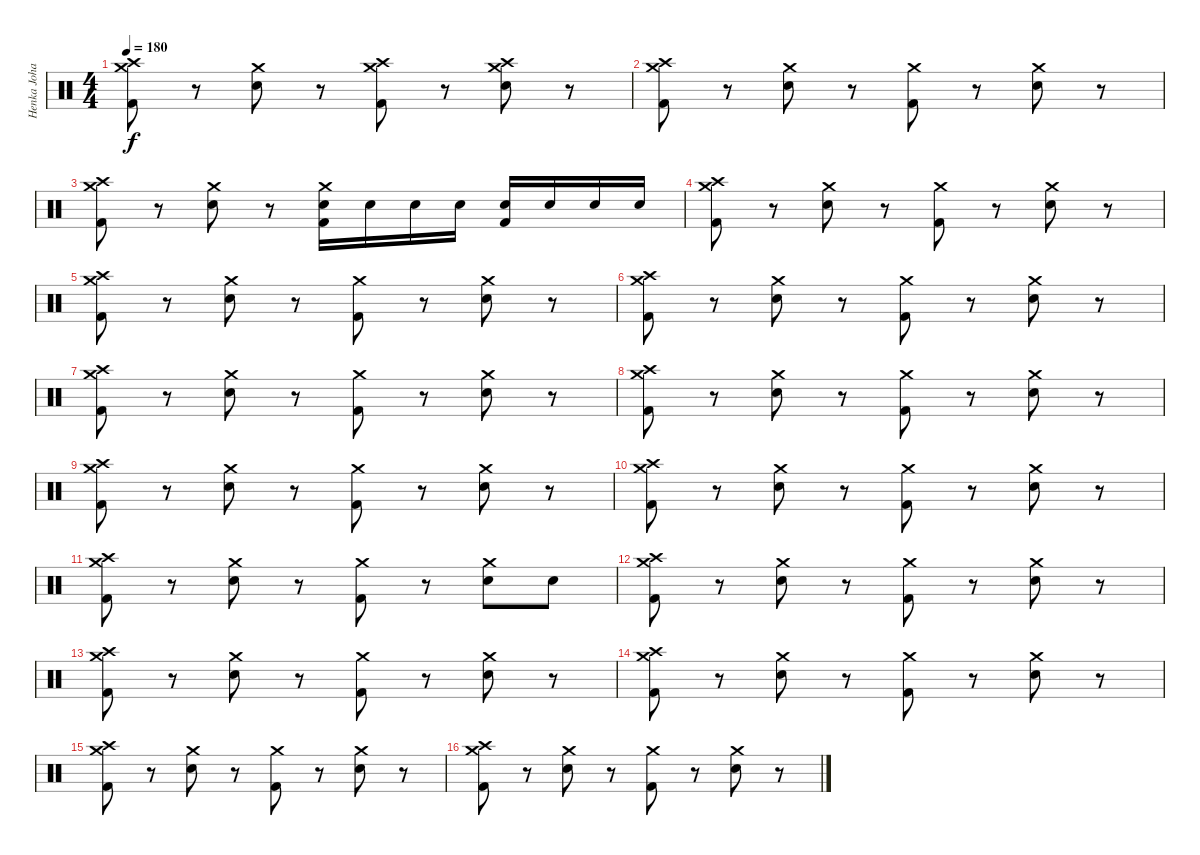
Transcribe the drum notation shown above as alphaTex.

\track ("Henka Johansson" "Henka Joha") {instrument percussion}
\staff {score}
\articulation defaults
\ts (4 4)
\tempo 180
\clef neutral
\ks c
("Crash medium (hit)" "Crash high (hit)" "Kick (hit) 2").8{dy f} r.8 ("Crash medium (hit)" "Snare (hit) 2").8 r.8 ("Crash medium (hit)" "Crash high (hit)" "Kick (hit) 2").8 r.8 ("Crash medium (hit)" "Crash high (hit)" "Snare (hit) 2").8 r.8 |
("Crash medium (hit)" "Crash high (hit)" "Kick (hit) 2").8 r.8 ("Crash medium (hit)" "Snare (hit) 2").8 r.8 ("Crash medium (hit)" "Kick (hit) 2").8 r.8 ("Crash medium (hit)" "Snare (hit) 2").8 r.8 |
("Crash medium (hit)" "Crash high (hit)" "Kick (hit) 2").8 r.8 ("Crash medium (hit)" "Snare (hit) 2").8 r.8 ("Crash medium (hit)" "Snare (hit) 2" "Kick (hit) 2").16 "Snare (hit) 2".16 "Snare (hit) 2".16 "Snare (hit) 2".16 ("Snare (hit) 2" "Kick (hit) 2").16 "Snare (hit) 2".16 "Snare (hit) 2".16 "Snare (hit) 2".16 |
("Crash medium (hit)" "Crash high (hit)" "Kick (hit) 2").8 r.8 ("Crash medium (hit)" "Snare (hit) 2").8 r.8 ("Crash medium (hit)" "Kick (hit) 2").8 r.8 ("Crash medium (hit)" "Snare (hit) 2").8 r.8 |
("Crash medium (hit)" "Crash high (hit)" "Kick (hit) 2").8 r.8 ("Crash medium (hit)" "Snare (hit) 2").8 r.8 ("Crash medium (hit)" "Kick (hit) 2").8 r.8 ("Crash medium (hit)" "Snare (hit) 2").8 r.8 |
("Crash medium (hit)" "Crash high (hit)" "Kick (hit) 2").8 r.8 ("Crash medium (hit)" "Snare (hit) 2").8 r.8 ("Crash medium (hit)" "Kick (hit) 2").8 r.8 ("Crash medium (hit)" "Snare (hit) 2").8 r.8 |
("Crash medium (hit)" "Crash high (hit)" "Kick (hit) 2").8 r.8 ("Crash medium (hit)" "Snare (hit) 2").8 r.8 ("Crash medium (hit)" "Kick (hit) 2").8 r.8 ("Crash medium (hit)" "Snare (hit) 2").8 r.8 |
("Crash medium (hit)" "Crash high (hit)" "Kick (hit) 2").8 r.8 ("Crash medium (hit)" "Snare (hit) 2").8 r.8 ("Crash medium (hit)" "Kick (hit) 2").8 r.8 ("Crash medium (hit)" "Snare (hit) 2").8 r.8 |
("Crash medium (hit)" "Crash high (hit)" "Kick (hit) 2").8 r.8 ("Crash medium (hit)" "Snare (hit) 2").8 r.8 ("Crash medium (hit)" "Kick (hit) 2").8 r.8 ("Crash medium (hit)" "Snare (hit) 2").8 r.8 |
("Crash medium (hit)" "Crash high (hit)" "Kick (hit) 2").8 r.8 ("Crash medium (hit)" "Snare (hit) 2").8 r.8 ("Crash medium (hit)" "Kick (hit) 2").8 r.8 ("Crash medium (hit)" "Snare (hit) 2").8 r.8 |
("Crash medium (hit)" "Crash high (hit)" "Kick (hit) 2").8 r.8 ("Crash medium (hit)" "Snare (hit) 2").8 r.8 ("Crash medium (hit)" "Kick (hit) 2").8 r.8 ("Crash medium (hit)" "Snare (hit) 2").8 "Snare (hit) 2".8 |
("Crash medium (hit)" "Crash high (hit)" "Kick (hit) 2").8 r.8 ("Crash medium (hit)" "Snare (hit) 2").8 r.8 ("Crash medium (hit)" "Kick (hit) 2").8 r.8 ("Crash medium (hit)" "Snare (hit) 2").8 r.8 |
("Crash medium (hit)" "Crash high (hit)" "Kick (hit) 2").8 r.8 ("Crash medium (hit)" "Snare (hit) 2").8 r.8 ("Crash medium (hit)" "Kick (hit) 2").8 r.8 ("Crash medium (hit)" "Snare (hit) 2").8 r.8 |
("Crash medium (hit)" "Crash high (hit)" "Kick (hit) 2").8 r.8 ("Crash medium (hit)" "Snare (hit) 2").8 r.8 ("Crash medium (hit)" "Kick (hit) 2").8 r.8 ("Crash medium (hit)" "Snare (hit) 2").8 r.8 |
("Crash medium (hit)" "Crash high (hit)" "Kick (hit) 2").8 r.8 ("Crash medium (hit)" "Snare (hit) 2").8 r.8 ("Crash medium (hit)" "Kick (hit) 2").8 r.8 ("Crash medium (hit)" "Snare (hit) 2").8 r.8 |
("Crash medium (hit)" "Crash high (hit)" "Kick (hit) 2").8 r.8 ("Crash medium (hit)" "Snare (hit) 2").8 r.8 ("Crash medium (hit)" "Kick (hit) 2").8 r.8 ("Crash medium (hit)" "Snare (hit) 2").8 r.8
